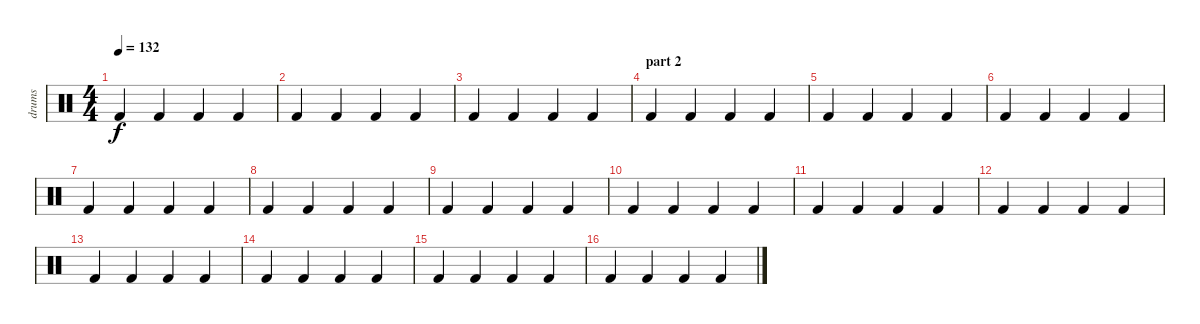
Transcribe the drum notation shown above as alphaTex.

\track ("drums" "drums") {instrument percussion}
\staff {score}
\articulation defaults
\ts (4 4)
\tempo 132
\clef neutral
\ks c "Kick (hit) 2".4{dy f} "Kick (hit) 2".4 "Kick (hit) 2".4 "Kick (hit) 2".4
|
"Kick (hit) 2".4 "Kick (hit) 2".4 "Kick (hit) 2".4 "Kick (hit) 2".4 |
"Kick (hit) 2".4 "Kick (hit) 2".4 "Kick (hit) 2".4 "Kick (hit) 2".4 |
\section ("" "part 2")
"Kick (hit) 2".4 "Kick (hit) 2".4 "Kick (hit) 2".4 "Kick (hit) 2".4 |
"Kick (hit) 2".4 "Kick (hit) 2".4 "Kick (hit) 2".4 "Kick (hit) 2".4 |
"Kick (hit) 2".4 "Kick (hit) 2".4 "Kick (hit) 2".4 "Kick (hit) 2".4 |
"Kick (hit) 2".4 "Kick (hit) 2".4 "Kick (hit) 2".4 "Kick (hit) 2".4 |
"Kick (hit) 2".4 "Kick (hit) 2".4 "Kick (hit) 2".4 "Kick (hit) 2".4 |
"Kick (hit) 2".4 "Kick (hit) 2".4 "Kick (hit) 2".4 "Kick (hit) 2".4 |
"Kick (hit) 2".4 "Kick (hit) 2".4 "Kick (hit) 2".4 "Kick (hit) 2".4 |
"Kick (hit) 2".4 "Kick (hit) 2".4 "Kick (hit) 2".4 "Kick (hit) 2".4 |
"Kick (hit) 2".4 "Kick (hit) 2".4 "Kick (hit) 2".4 "Kick (hit) 2".4 |
"Kick (hit) 2".4 "Kick (hit) 2".4 "Kick (hit) 2".4 "Kick (hit) 2".4 |
"Kick (hit) 2".4 "Kick (hit) 2".4 "Kick (hit) 2".4 "Kick (hit) 2".4 |
"Kick (hit) 2".4 "Kick (hit) 2".4 "Kick (hit) 2".4 "Kick (hit) 2".4 |
"Kick (hit) 2".4 "Kick (hit) 2".4 "Kick (hit) 2".4 "Kick (hit) 2".4
